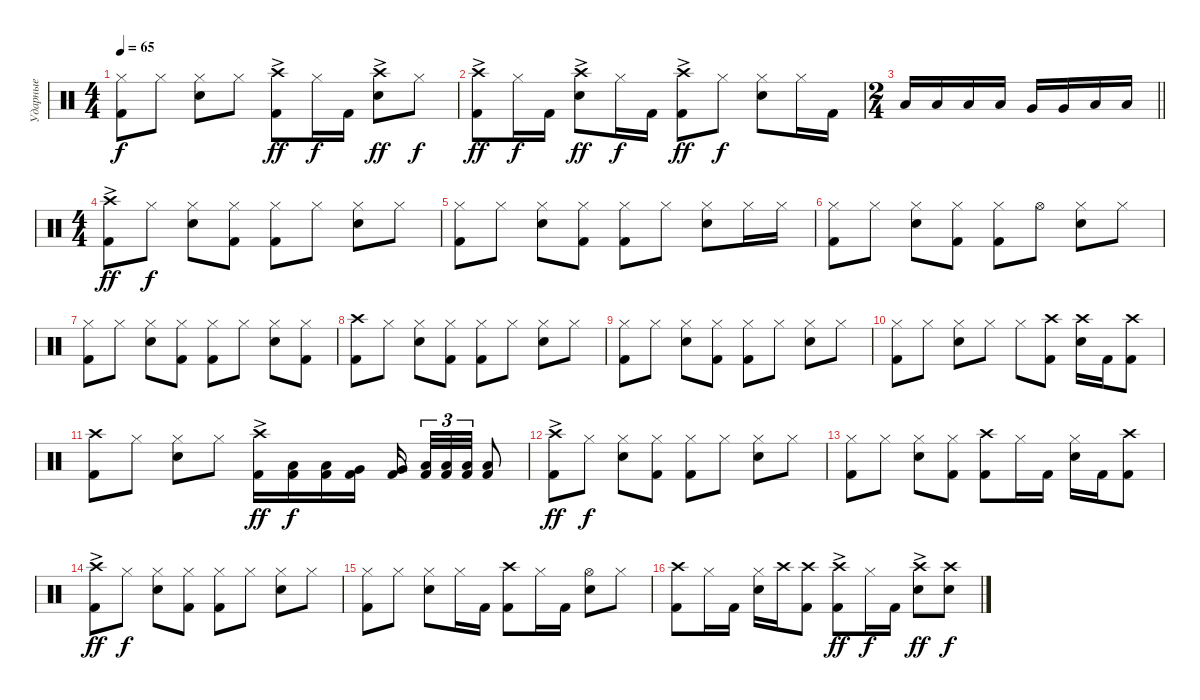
\track ("Ударные" "Ударные") {instrument percussion}
\staff {score}
\articulation defaults
\ts (4 4)
\tempo 65
\clef neutral
\ks c
("Kick (hit) 2" "Hi-Hat (closed)").8{dy f} "Hi-Hat (closed)".8 ("Snare (hit) 2" "Hi-Hat (closed)").8 "Hi-Hat (closed)".8 ("Kick (hit) 2" "Crash high (hit)"{ac}).8{dy ff} "Hi-Hat (closed)".16{dy f} "Kick (hit) 2".16 ("Snare (hit) 2" "Crash high (hit)"{ac}).8{dy ff} "Hi-Hat (closed)".8{dy f} |
("Kick (hit) 2" "Crash high (hit)"{ac}).8{dy ff} "Hi-Hat (closed)".16{dy f} "Kick (hit) 2".16 ("Snare (hit) 2" "Crash high (hit)"{ac}).8{dy ff} "Hi-Hat (closed)".16{dy f} "Kick (hit) 2".16 ("Kick (hit) 2" "Crash high (hit)"{ac}).8{dy ff} "Hi-Hat (closed)".8{dy f} ("Snare (hit) 2" "Hi-Hat (closed)").8 "Hi-Hat (closed)".16 "Kick (hit) 2".16 |
\ts (2 4)
\barLineRight lightlight "Low Tom (hit)".16 "Low Tom (hit)".16 "Low Tom (hit)".16 "Low Tom (hit)".16 "Very Low Tom (hit)".16 "Very Low Tom (hit)".16 "Low Floor Tom (hit)".16 "Low Floor Tom (hit)".16
|
\ts (4 4)
("Kick (hit) 2" "Crash high (hit)"{ac}).8{dy ff} "Hi-Hat (closed)".8{dy f} ("Snare (hit) 2" "Hi-Hat (closed)").8 ("Kick (hit) 2" "Hi-Hat (closed)").8 ("Kick (hit) 2" "Hi-Hat (closed)").8 "Hi-Hat (closed)".8 ("Snare (hit) 2" "Hi-Hat (closed)").8 "Hi-Hat (closed)".8 |
("Kick (hit) 2" "Hi-Hat (closed)").8 "Hi-Hat (closed)".8 ("Snare (hit) 2" "Hi-Hat (closed)").8 ("Kick (hit) 2" "Hi-Hat (closed)").8 ("Kick (hit) 2" "Hi-Hat (closed)").8 "Hi-Hat (closed)".8 ("Snare (hit) 2" "Hi-Hat (closed)").8 "Hi-Hat (closed)".16 "Hi-Hat (closed)".16 |
("Kick (hit) 2" "Hi-Hat (closed)").8 "Hi-Hat (closed)".8 ("Snare (hit) 2" "Hi-Hat (closed)").8 ("Kick (hit) 2" "Hi-Hat (closed)").8 ("Kick (hit) 2" "Hi-Hat (closed)").8 "Hi-Hat (open)".8 ("Snare (hit) 2" "Hi-Hat (closed)").8 "Hi-Hat (closed)".8 |
("Kick (hit) 2" "Hi-Hat (closed)").8 "Hi-Hat (closed)".8 ("Snare (hit) 2" "Hi-Hat (closed)").8 ("Kick (hit) 2" "Hi-Hat (closed)").8 ("Kick (hit) 2" "Hi-Hat (closed)").8 "Hi-Hat (closed)".8 ("Snare (hit) 2" "Hi-Hat (closed)").8 ("Kick (hit) 2" "Hi-Hat (closed)").8 |
("Kick (hit) 2" "Crash high (hit)").8 "Hi-Hat (closed)".8 ("Snare (hit) 2" "Hi-Hat (closed)").8 ("Kick (hit) 2" "Hi-Hat (closed)").8 ("Kick (hit) 2" "Hi-Hat (closed)").8 "Hi-Hat (closed)".8 ("Snare (hit) 2" "Hi-Hat (closed)").8 "Hi-Hat (closed)".8 |
("Kick (hit) 2" "Hi-Hat (closed)").8 "Hi-Hat (closed)".8 ("Snare (hit) 2" "Hi-Hat (closed)").8 ("Kick (hit) 2" "Hi-Hat (closed)").8 ("Kick (hit) 2" "Hi-Hat (closed)").8 "Hi-Hat (closed)".8 ("Snare (hit) 2" "Hi-Hat (closed)").8 "Hi-Hat (closed)".8 |
("Kick (hit) 2" "Hi-Hat (closed)").8 "Hi-Hat (closed)".8 ("Snare (hit) 2" "Hi-Hat (closed)").8 "Hi-Hat (closed)".8 "Hi-Hat (closed)".8 ("Kick (hit) 2" "Crash high (hit)").8 ("Snare (hit) 2" "Crash high (hit)").16 "Kick (hit) 2".16 ("Kick (hit) 2" "Crash high (hit)").8 |
("Kick (hit) 2" "Crash high (hit)").8 "Hi-Hat (closed)".8 ("Snare (hit) 2" "Hi-Hat (closed)").8 "Hi-Hat (closed)".8 ("Kick (hit) 2" "Crash high (hit)"{ac}).16{dy ff} ("Kick (hit) 2" "Low Tom (hit)").16{dy f} ("Kick (hit) 2" "Low Tom (hit)").16 ("Kick (hit) 2" "Very Low Tom (hit)").16 ("Kick (hit) 2" "Very Low Tom (hit)").16{beam splitsecondary} ("Kick (hit) 2" "Low Floor Tom (hit)").32{tu (3 2)} ("Kick (hit) 2" "Low Floor Tom (hit)").32{tu (3 2)} ("Kick (hit) 2" "Low Floor Tom (hit)").32{tu (3 2)} ("Kick (hit) 2" "Low Floor Tom (hit)").8 |
("Kick (hit) 2" "Crash high (hit)"{ac}).8{dy ff} "Hi-Hat (closed)".8{dy f} ("Snare (hit) 2" "Hi-Hat (closed)").8 ("Kick (hit) 2" "Hi-Hat (closed)").8 ("Kick (hit) 2" "Hi-Hat (closed)").8 "Hi-Hat (closed)".8 ("Snare (hit) 2" "Hi-Hat (closed)").8 "Hi-Hat (closed)".8 |
("Kick (hit) 2" "Hi-Hat (closed)").8 "Hi-Hat (closed)".8 ("Snare (hit) 2" "Hi-Hat (closed)").8 ("Kick (hit) 2" "Hi-Hat (closed)").8 ("Kick (hit) 2" "Crash high (hit)").8 "Hi-Hat (closed)".16 "Kick (hit) 2".16 ("Snare (hit) 2" "Hi-Hat (closed)").16 "Kick (hit) 2".16 ("Kick (hit) 2" "Crash high (hit)").8 |
("Kick (hit) 2" "Crash high (hit)"{ac}).8{dy ff} "Hi-Hat (closed)".8{dy f} ("Snare (hit) 2" "Hi-Hat (closed)").8 ("Kick (hit) 2" "Hi-Hat (closed)").8 ("Kick (hit) 2" "Hi-Hat (closed)").8 "Hi-Hat (closed)".8 ("Snare (hit) 2" "Hi-Hat (closed)").8 "Hi-Hat (closed)".8 |
("Kick (hit) 2" "Hi-Hat (closed)").8 "Hi-Hat (closed)".8 ("Snare (hit) 2" "Hi-Hat (closed)").8 "Hi-Hat (closed)".16 "Kick (hit) 2".16 ("Kick (hit) 2" "Crash high (hit)").8 "Hi-Hat (closed)".16 "Kick (hit) 2".16 ("Snare (hit) 2" "Hi-Hat (open)").8 "Hi-Hat (closed)".8 |
("Kick (hit) 2" "Crash high (hit)").8 "Hi-Hat (closed)".16 "Kick (hit) 2".16 ("Snare (hit) 2" "Hi-Hat (closed)").16 "Crash high (hit)".16 ("Kick (hit) 2" "Crash high (hit)").8 ("Kick (hit) 2" "Crash high (hit)"{ac}).8{dy ff} "Hi-Hat (closed)".16{dy f} "Kick (hit) 2".16 ("Snare (hit) 2" "Crash high (hit)"{ac}).8{dy ff} ("Snare (hit) 2" "Crash high (hit)").8{dy f}
